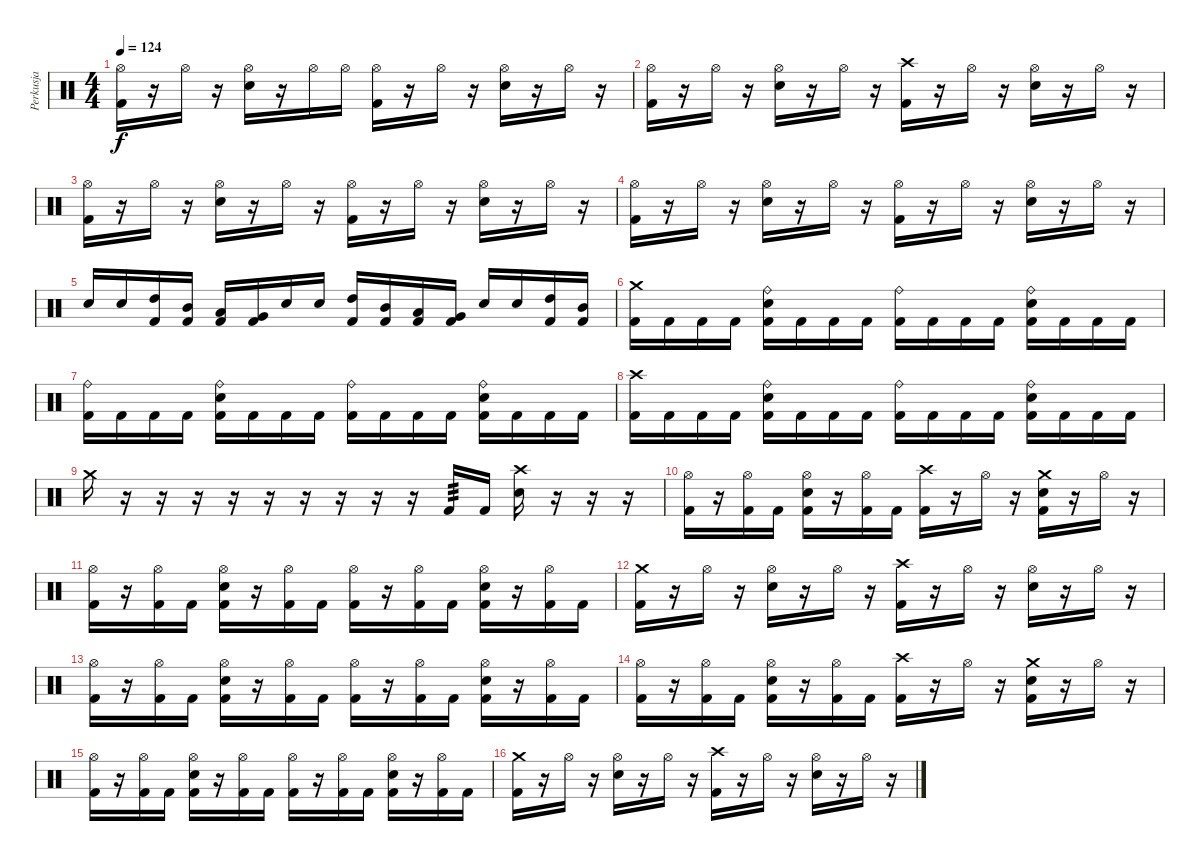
\track ("Perkusja" "Perkusja") {instrument percussion}
\staff {score}
\articulation defaults
\ts (4 4)
\tempo 124
\clef neutral
\ks c
("Hi-Hat (open)" "Kick (hit) 2").16{dy f} r.16 "Hi-Hat (open)".16 r.16 ("Snare (hit) 2" "Hi-Hat (open)").16 r.16 "Hi-Hat (open)".16 "Hi-Hat (open)".16 ("Hi-Hat (open)" "Kick (hit) 2").16 r.16 "Hi-Hat (open)".16 r.16 ("Snare (hit) 2" "Hi-Hat (open)").16 r.16 "Hi-Hat (open)".16 r.16 |
("Hi-Hat (open)" "Kick (hit) 2").16 r.16 "Hi-Hat (open)".16 r.16 ("Snare (hit) 2" "Hi-Hat (open)").16 r.16 "Hi-Hat (open)".16 r.16 ("Crash high (hit)" "Kick (hit) 2").16 r.16 "Hi-Hat (open)".16 r.16 ("Snare (hit) 2" "Hi-Hat (open)").16 r.16 "Hi-Hat (open)".16 r.16 |
("Hi-Hat (open)" "Kick (hit) 2").16 r.16 "Hi-Hat (open)".16 r.16 ("Snare (hit) 2" "Hi-Hat (open)").16 r.16 "Hi-Hat (open)".16 r.16 ("Hi-Hat (open)" "Kick (hit) 2").16 r.16 "Hi-Hat (open)".16 r.16 ("Snare (hit) 2" "Hi-Hat (open)").16 r.16 "Hi-Hat (open)".16 r.16 |
("Hi-Hat (open)" "Kick (hit) 2").16 r.16 "Hi-Hat (open)".16 r.16 ("Snare (hit) 2" "Hi-Hat (open)").16 r.16 "Hi-Hat (open)".16 r.16 ("Hi-Hat (open)" "Kick (hit) 2").16 r.16 "Hi-Hat (open)".16 r.16 ("Snare (hit) 2" "Hi-Hat (open)").16 r.16 "Hi-Hat (open)".16 r.16 |
"Snare (hit) 2".16 "Snare (hit) 2".16 ("High Tom (hit)" "Kick (hit) 2").16 ("Mid Tom (hit)" "Kick (hit) 2").16 ("Low Tom (hit)" "Kick (hit) 2").16 ("Very Low Tom (hit)" "Kick (hit) 2").16 "Snare (hit) 2".16 "Snare (hit) 2".16 ("High Tom (hit)" "Kick (hit) 2").16 ("Mid Tom (hit)" "Kick (hit) 2").16 ("Low Tom (hit)" "Kick (hit) 2").16 ("Very Low Tom (hit)" "Kick (hit) 2").16 "Snare (hit) 2".16 "Snare (hit) 2".16 ("High Tom (hit)" "Kick (hit) 2").16 ("Mid Tom (hit)" "Kick (hit) 2").16 |
("Crash medium (hit)" "Kick (hit) 2").16 "Kick (hit) 2".16 "Kick (hit) 2".16 "Kick (hit) 2".16 ("Ride (bell)" "Snare (hit) 2" "Kick (hit) 2").16 "Kick (hit) 2".16 "Kick (hit) 2".16 "Kick (hit) 2".16 ("Ride (bell)" "Kick (hit) 2").16 "Kick (hit) 2".16 "Kick (hit) 2".16 "Kick (hit) 2".16 ("Ride (bell)" "Snare (hit) 2" "Kick (hit) 2").16 "Kick (hit) 2".16 "Kick (hit) 2".16 "Kick (hit) 2".16 |
("Ride (bell)" "Kick (hit) 2").16 "Kick (hit) 2".16 "Kick (hit) 2".16 "Kick (hit) 2".16 ("Ride (bell)" "Snare (hit) 2" "Kick (hit) 2").16 "Kick (hit) 2".16 "Kick (hit) 2".16 "Kick (hit) 2".16 ("Ride (bell)" "Kick (hit) 2").16 "Kick (hit) 2".16 "Kick (hit) 2".16 "Kick (hit) 2".16 ("Ride (bell)" "Snare (hit) 2" "Kick (hit) 2").16 "Kick (hit) 2".16 "Kick (hit) 2".16 "Kick (hit) 2".16 |
("Crash high (hit)" "Kick (hit) 2").16 "Kick (hit) 2".16 "Kick (hit) 2".16 "Kick (hit) 2".16 ("Ride (bell)" "Snare (hit) 2" "Kick (hit) 2").16 "Kick (hit) 2".16 "Kick (hit) 2".16 "Kick (hit) 2".16 ("Ride (bell)" "Kick (hit) 2").16 "Kick (hit) 2".16 "Kick (hit) 2".16 "Kick (hit) 2".16 ("Ride (bell)" "Snare (hit) 2" "Kick (hit) 2").16 "Kick (hit) 2".16 "Kick (hit) 2".16 "Kick (hit) 2".16 |
"Crash medium (hit)".16 r.16 r.16 r.16 r.16 r.16 r.16 r.16 r.16 r.16 "Kick (hit) 2".16{tp 3} "Kick (hit) 2".16 ("Snare (hit) 2" "Crash high (hit)").16 r.16 r.16 r.16 |
("Hi-Hat (open)" "Kick (hit) 2").16 r.16 ("Hi-Hat (open)" "Kick (hit) 2").16 "Kick (hit) 2".16 ("Snare (hit) 2" "Hi-Hat (open)" "Kick (hit) 2").16 r.16 ("Hi-Hat (open)" "Kick (hit) 2").16 "Kick (hit) 2".16 ("Crash high (hit)" "Kick (hit) 2").16 r.16 "Hi-Hat (open)".16 r.16 ("Snare (hit) 2" "Crash medium (hit)" "Kick (hit) 2").16 r.16 "Hi-Hat (open)".16 r.16 |
("Hi-Hat (open)" "Kick (hit) 2").16 r.16 ("Hi-Hat (open)" "Kick (hit) 2").16 "Kick (hit) 2".16 ("Snare (hit) 2" "Hi-Hat (open)" "Kick (hit) 2").16 r.16 ("Hi-Hat (open)" "Kick (hit) 2").16 "Kick (hit) 2".16 ("Hi-Hat (open)" "Kick (hit) 2").16 r.16 ("Hi-Hat (open)" "Kick (hit) 2").16 "Kick (hit) 2".16 ("Snare (hit) 2" "Hi-Hat (open)" "Kick (hit) 2").16 r.16 ("Hi-Hat (open)" "Kick (hit) 2").16 "Kick (hit) 2".16 |
("Crash medium (hit)" "Kick (hit) 2").16 r.16 "Hi-Hat (open)".16 r.16 ("Snare (hit) 2" "Hi-Hat (open)").16 r.16 "Hi-Hat (open)".16 r.16 ("Crash high (hit)" "Kick (hit) 2").16 r.16 "Hi-Hat (open)".16 r.16 ("Snare (hit) 2" "Hi-Hat (open)").16 r.16 "Hi-Hat (open)".16 r.16 |
("Hi-Hat (open)" "Kick (hit) 2").16 r.16 ("Hi-Hat (open)" "Kick (hit) 2").16 "Kick (hit) 2".16 ("Snare (hit) 2" "Hi-Hat (open)" "Kick (hit) 2").16 r.16 ("Hi-Hat (open)" "Kick (hit) 2").16 "Kick (hit) 2".16 ("Hi-Hat (open)" "Kick (hit) 2").16 r.16 ("Hi-Hat (open)" "Kick (hit) 2").16 "Kick (hit) 2".16 ("Snare (hit) 2" "Hi-Hat (open)" "Kick (hit) 2").16 r.16 ("Hi-Hat (open)" "Kick (hit) 2").16 "Kick (hit) 2".16 |
("Hi-Hat (open)" "Kick (hit) 2").16 r.16 ("Hi-Hat (open)" "Kick (hit) 2").16 "Kick (hit) 2".16 ("Snare (hit) 2" "Hi-Hat (open)" "Kick (hit) 2").16 r.16 ("Hi-Hat (open)" "Kick (hit) 2").16 "Kick (hit) 2".16 ("Crash high (hit)" "Kick (hit) 2").16 r.16 "Hi-Hat (open)".16 r.16 ("Snare (hit) 2" "Crash medium (hit)" "Kick (hit) 2").16 r.16 "Hi-Hat (open)".16 r.16 |
("Hi-Hat (open)" "Kick (hit) 2").16 r.16 ("Hi-Hat (open)" "Kick (hit) 2").16 "Kick (hit) 2".16 ("Snare (hit) 2" "Hi-Hat (open)" "Kick (hit) 2").16 r.16 ("Hi-Hat (open)" "Kick (hit) 2").16 "Kick (hit) 2".16 ("Hi-Hat (open)" "Kick (hit) 2").16 r.16 ("Hi-Hat (open)" "Kick (hit) 2").16 "Kick (hit) 2".16 ("Snare (hit) 2" "Hi-Hat (open)" "Kick (hit) 2").16 r.16 ("Hi-Hat (open)" "Kick (hit) 2").16 "Kick (hit) 2".16 |
("Crash medium (hit)" "Kick (hit) 2").16 r.16 "Hi-Hat (open)".16 r.16 ("Snare (hit) 2" "Hi-Hat (open)").16 r.16 "Hi-Hat (open)".16 r.16 ("Crash high (hit)" "Kick (hit) 2").16 r.16 "Hi-Hat (open)".16 r.16 ("Snare (hit) 2" "Hi-Hat (open)").16 r.16 "Hi-Hat (open)".16 r.16
